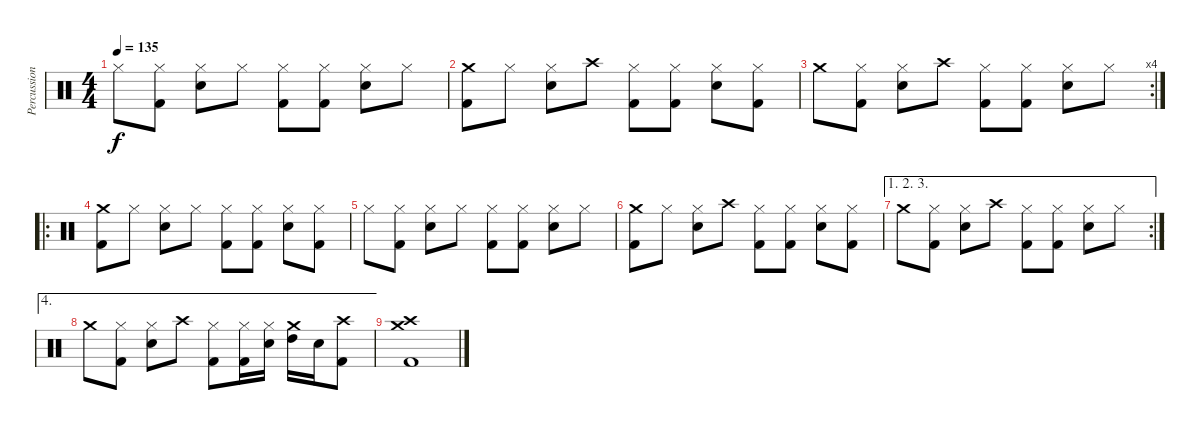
\track ("Percussion" "Percussion") {instrument percussion}
\staff {score}
\articulation defaults
\ts (4 4)
\tempo 135
\clef neutral
\ks c "Hi-Hat (closed)".8{dy f}
("Hi-Hat (closed)" "Kick (hit) 2").8 ("Hi-Hat (closed)" "Snare (hit) 2").8 "Hi-Hat (closed)".8 ("Hi-Hat (closed)" "Kick (hit) 2").8 ("Hi-Hat (closed)" "Kick (hit) 2").8 ("Hi-Hat (closed)" "Snare (hit) 2").8 "Hi-Hat (closed)".8 |
("Crash medium (hit)" "Kick (hit) 2").8 "Hi-Hat (closed)".8 ("Hi-Hat (closed)" "Snare (hit) 2").8 "Crash high (hit)".8 ("Hi-Hat (closed)" "Kick (hit) 2").8 ("Hi-Hat (closed)" "Kick (hit) 2").8 ("Hi-Hat (closed)" "Snare (hit) 2").8 ("Hi-Hat (closed)" "Kick (hit) 2").8 |
\rc 4 "Crash medium (hit)".8
("Hi-Hat (closed)" "Kick (hit) 2").8 ("Hi-Hat (closed)" "Snare (hit) 2").8 "Crash high (hit)".8 ("Hi-Hat (closed)" "Kick (hit) 2").8 ("Hi-Hat (closed)" "Kick (hit) 2").8 ("Hi-Hat (closed)" "Snare (hit) 2").8 "Hi-Hat (closed)".8 |
\ro
("Crash medium (hit)" "Kick (hit) 2").8 "Hi-Hat (closed)".8 ("Hi-Hat (closed)" "Snare (hit) 2").8 "Hi-Hat (closed)".8 ("Hi-Hat (closed)" "Kick (hit) 2").8 ("Hi-Hat (closed)" "Kick (hit) 2").8 ("Hi-Hat (closed)" "Snare (hit) 2").8 ("Hi-Hat (closed)" "Kick (hit) 2").8 |
"Hi-Hat (closed)".8 ("Hi-Hat (closed)" "Kick (hit) 2").8 ("Hi-Hat (closed)" "Snare (hit) 2").8 "Hi-Hat (closed)".8 ("Hi-Hat (closed)" "Kick (hit) 2").8 ("Hi-Hat (closed)" "Kick (hit) 2").8 ("Hi-Hat (closed)" "Snare (hit) 2").8 "Hi-Hat (closed)".8 |
("Crash medium (hit)" "Kick (hit) 2").8 "Hi-Hat (closed)".8 ("Hi-Hat (closed)" "Snare (hit) 2").8 "Crash high (hit)".8 ("Hi-Hat (closed)" "Kick (hit) 2").8 ("Hi-Hat (closed)" "Kick (hit) 2").8 ("Hi-Hat (closed)" "Snare (hit) 2").8 ("Hi-Hat (closed)" "Kick (hit) 2").8 |
\ae (1 2 3)
\rc 2 "Crash medium (hit)".8
("Hi-Hat (closed)" "Kick (hit) 2").8 ("Hi-Hat (closed)" "Snare (hit) 2").8 "Crash high (hit)".8 ("Hi-Hat (closed)" "Kick (hit) 2").8 ("Hi-Hat (closed)" "Kick (hit) 2").8 ("Hi-Hat (closed)" "Snare (hit) 2").8 "Hi-Hat (closed)".8 |
\ae 4 "Crash medium (hit)".8
("Hi-Hat (closed)" "Kick (hit) 2").8 ("Hi-Hat (closed)" "Snare (hit) 2").8 "Crash high (hit)".8 ("Hi-Hat (closed)" "Kick (hit) 2").8 ("Hi-Hat (closed)" "Kick (hit) 2").16 ("Hi-Hat (closed)" "Snare (hit) 2").16 ("Crash medium (hit)" "High Tom (hit)").16 "Snare (hit) 2".16 ("Crash high (hit)" "Kick (hit) 2").8 |
("Crash medium (hit)" "Crash high (hit)" "Kick (hit) 2").1
